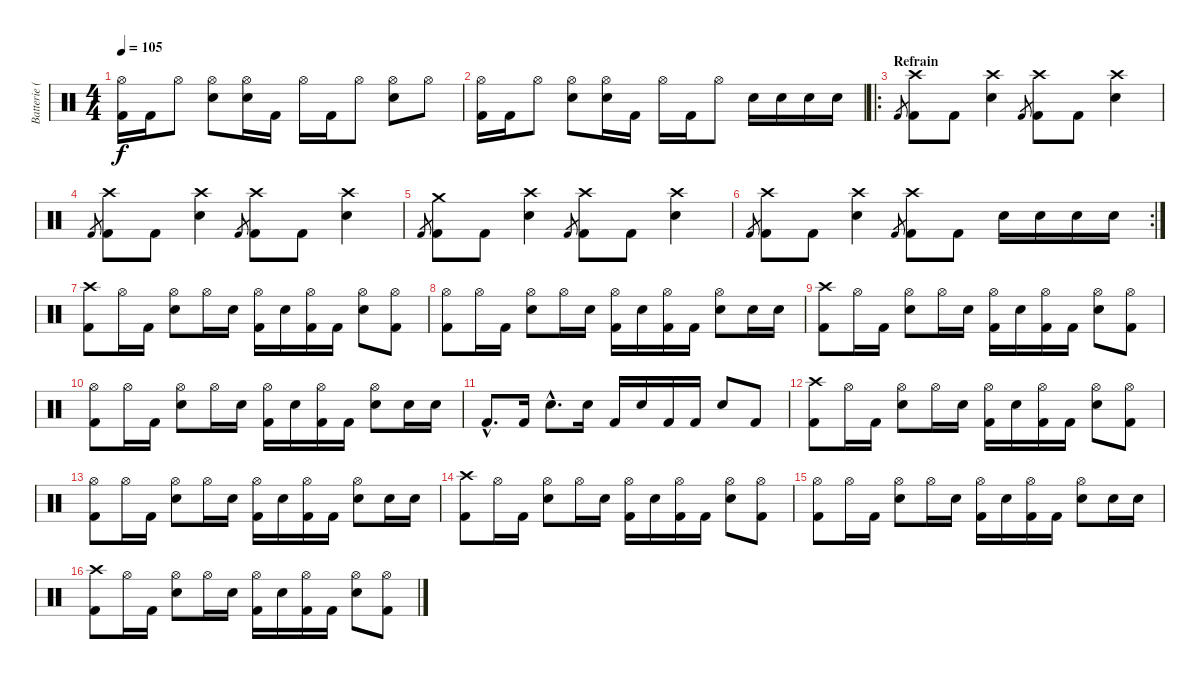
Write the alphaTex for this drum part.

\track ("Batterie (Preston Nash)" "Batterie (") {instrument percussion}
\staff {score}
\articulation defaults
\ts (4 4)
\tempo 105
\clef neutral
\ks c
("Hi-Hat (open)" "Kick (hit) 2").16{dy f} "Kick (hit) 2".16 "Hi-Hat (open)".8 ("Hi-Hat (open)" "Electric Snare (hit)").8 ("Hi-Hat (open)" "Electric Snare (hit)").16 "Kick (hit) 2".16 "Hi-Hat (open)".16 "Kick (hit) 2".16 "Hi-Hat (open)".8 ("Hi-Hat (open)" "Electric Snare (hit)").8 "Hi-Hat (open)".8 |
("Hi-Hat (open)" "Kick (hit) 2").16 "Kick (hit) 2".16 "Hi-Hat (open)".8 ("Hi-Hat (open)" "Electric Snare (hit)").8 ("Hi-Hat (open)" "Electric Snare (hit)").16 "Kick (hit) 2".16 "Hi-Hat (open)".16 "Kick (hit) 2".16 "Hi-Hat (open)".8 "Electric Snare (hit)".16 "Electric Snare (hit)".16 "Electric Snare (hit)".16 "Electric Snare (hit)".16 |
\ro
\section ("" "Refrain")
"Kick (hit) 2".8{gr} ("Crash high (hit)" "Kick (hit) 2").8 "Kick (hit) 2".8 ("Crash high (hit)" "Electric Snare (hit)").4 "Kick (hit) 2".8{gr} ("Crash high (hit)" "Kick (hit) 2").8 "Kick (hit) 2".8 ("Crash high (hit)" "Electric Snare (hit)").4 |
"Kick (hit) 2".8{gr} ("Crash high (hit)" "Kick (hit) 2").8 "Kick (hit) 2".8 ("Crash high (hit)" "Electric Snare (hit)").4 "Kick (hit) 2".8{gr} ("Crash high (hit)" "Kick (hit) 2").8 "Kick (hit) 2".8 ("Crash high (hit)" "Electric Snare (hit)").4 |
"Kick (hit) 2".8{gr} ("Crash medium (hit)" "Kick (hit) 2").8 "Kick (hit) 2".8 ("Crash high (hit)" "Electric Snare (hit)").4 "Kick (hit) 2".8{gr} ("Crash high (hit)" "Kick (hit) 2").8 "Kick (hit) 2".8 ("Crash high (hit)" "Electric Snare (hit)").4 |
\rc 2 "Kick (hit) 2".8{gr}
("Crash high (hit)" "Kick (hit) 2").8 "Kick (hit) 2".8 ("Crash high (hit)" "Electric Snare (hit)").4 "Kick (hit) 2".8{gr} ("Crash high (hit)" "Kick (hit) 2").8 "Kick (hit) 2".8 "Electric Snare (hit)".16 "Electric Snare (hit)".16 "Electric Snare (hit)".16 "Electric Snare (hit)".16 |
("Crash high (hit)" "Kick (hit) 2").8 "Hi-Hat (open)".16 "Kick (hit) 2".16 ("Hi-Hat (open)" "Electric Snare (hit)").8 "Hi-Hat (open)".16 "Electric Snare (hit)".16 ("Hi-Hat (open)" "Kick (hit) 2").16 "Electric Snare (hit)".16 ("Hi-Hat (open)" "Kick (hit) 2").16 "Kick (hit) 2".16 ("Hi-Hat (open)" "Electric Snare (hit)").8 ("Hi-Hat (open)" "Kick (hit) 2").8 |
("Hi-Hat (open)" "Kick (hit) 2").8 "Hi-Hat (open)".16 "Kick (hit) 2".16 ("Hi-Hat (open)" "Electric Snare (hit)").8 "Hi-Hat (open)".16 "Electric Snare (hit)".16 ("Hi-Hat (open)" "Kick (hit) 2").16 "Electric Snare (hit)".16 ("Hi-Hat (open)" "Kick (hit) 2").16 "Kick (hit) 2".16 ("Hi-Hat (open)" "Electric Snare (hit)").8 "Electric Snare (hit)".16 "Electric Snare (hit)".16 |
("Crash high (hit)" "Kick (hit) 2").8 "Hi-Hat (open)".16 "Kick (hit) 2".16 ("Hi-Hat (open)" "Electric Snare (hit)").8 "Hi-Hat (open)".16 "Electric Snare (hit)".16 ("Hi-Hat (open)" "Kick (hit) 2").16 "Electric Snare (hit)".16 ("Hi-Hat (open)" "Kick (hit) 2").16 "Kick (hit) 2".16 ("Hi-Hat (open)" "Electric Snare (hit)").8 ("Hi-Hat (open)" "Kick (hit) 2").8 |
("Hi-Hat (open)" "Kick (hit) 2").8 "Hi-Hat (open)".16 "Kick (hit) 2".16 ("Hi-Hat (open)" "Electric Snare (hit)").8 "Hi-Hat (open)".16 "Electric Snare (hit)".16 ("Hi-Hat (open)" "Kick (hit) 2").16 "Electric Snare (hit)".16 ("Hi-Hat (open)" "Kick (hit) 2").16 "Kick (hit) 2".16 ("Hi-Hat (open)" "Electric Snare (hit)").8 "Electric Snare (hit)".16 "Electric Snare (hit)".16 |
"Kick (hit) 2"{hac}.8{d} "Kick (hit) 2".16 "Electric Snare (hit)"{hac}.8{d} "Electric Snare (hit)".16 "Kick (hit) 2".16 "Electric Snare (hit)".16 "Kick (hit) 2".16 "Kick (hit) 2".16 "Electric Snare (hit)".8 "Kick (hit) 2".8 |
("Crash high (hit)" "Kick (hit) 2").8{balance 8} "Hi-Hat (open)".16 "Kick (hit) 2".16 ("Hi-Hat (open)" "Electric Snare (hit)").8 "Hi-Hat (open)".16 "Electric Snare (hit)".16 ("Hi-Hat (open)" "Kick (hit) 2").16 "Electric Snare (hit)".16 ("Hi-Hat (open)" "Kick (hit) 2").16 "Kick (hit) 2".16 ("Hi-Hat (open)" "Electric Snare (hit)").8 ("Hi-Hat (open)" "Kick (hit) 2").8 |
("Hi-Hat (open)" "Kick (hit) 2").8 "Hi-Hat (open)".16 "Kick (hit) 2".16 ("Hi-Hat (open)" "Electric Snare (hit)").8 "Hi-Hat (open)".16 "Electric Snare (hit)".16 ("Hi-Hat (open)" "Kick (hit) 2").16 "Electric Snare (hit)".16 ("Hi-Hat (open)" "Kick (hit) 2").16 "Kick (hit) 2".16 ("Hi-Hat (open)" "Electric Snare (hit)").8 "Electric Snare (hit)".16 "Electric Snare (hit)".16 |
("Crash high (hit)" "Kick (hit) 2").8 "Hi-Hat (open)".16 "Kick (hit) 2".16 ("Hi-Hat (open)" "Electric Snare (hit)").8 "Hi-Hat (open)".16 "Electric Snare (hit)".16 ("Hi-Hat (open)" "Kick (hit) 2").16 "Electric Snare (hit)".16 ("Hi-Hat (open)" "Kick (hit) 2").16 "Kick (hit) 2".16 ("Hi-Hat (open)" "Electric Snare (hit)").8 ("Hi-Hat (open)" "Kick (hit) 2").8 |
("Hi-Hat (open)" "Kick (hit) 2").8 "Hi-Hat (open)".16 "Kick (hit) 2".16 ("Hi-Hat (open)" "Electric Snare (hit)").8 "Hi-Hat (open)".16 "Electric Snare (hit)".16 ("Hi-Hat (open)" "Kick (hit) 2").16 "Electric Snare (hit)".16 ("Hi-Hat (open)" "Kick (hit) 2").16 "Kick (hit) 2".16 ("Hi-Hat (open)" "Electric Snare (hit)").8 "Electric Snare (hit)".16 "Electric Snare (hit)".16 |
("Crash high (hit)" "Kick (hit) 2").8 "Hi-Hat (open)".16 "Kick (hit) 2".16 ("Hi-Hat (open)" "Electric Snare (hit)").8 "Hi-Hat (open)".16 "Electric Snare (hit)".16 ("Hi-Hat (open)" "Kick (hit) 2").16 "Electric Snare (hit)".16 ("Hi-Hat (open)" "Kick (hit) 2").16 "Kick (hit) 2".16 ("Hi-Hat (open)" "Electric Snare (hit)").8 ("Hi-Hat (open)" "Kick (hit) 2").8
